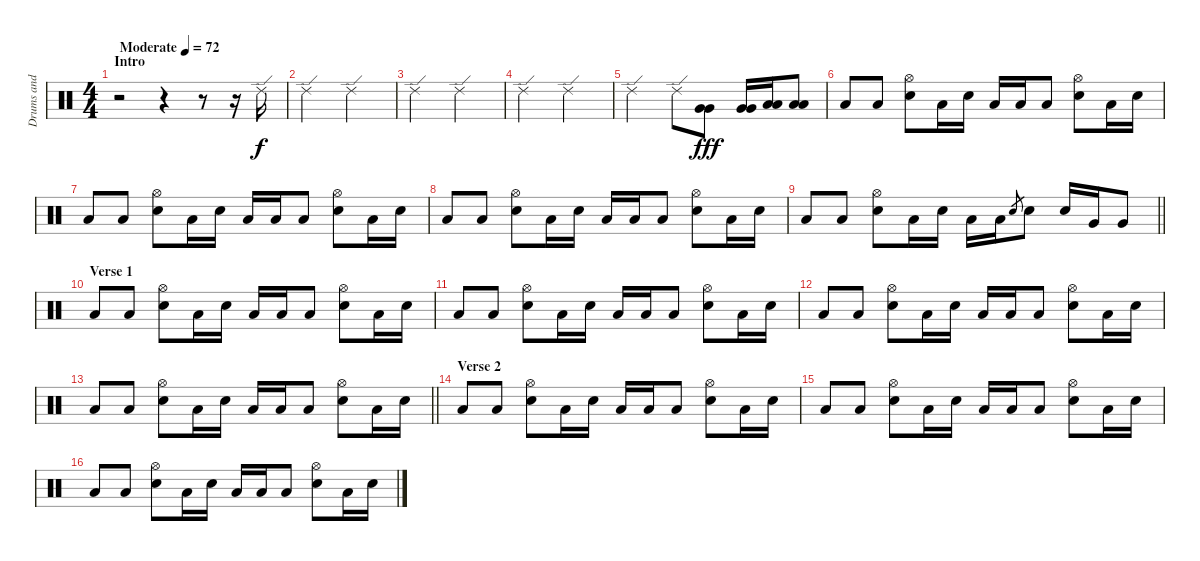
\track ("Drums and Percussions" "Drums and ") {instrument percussion}
\staff {score}
\articulation defaults
\ts (4 4)
\section ("" "Intro")
\tempo (72 "Moderate")
\clef neutral
\ks c
r.2{dy f} r.4 r.8 r.16 "Ride (edge) 2".16 |
"Ride (edge) 2".2 "Ride (edge) 2".2 |
"Ride (edge) 2".2 "Ride (edge) 2".2 |
"Ride (edge) 2".2 "Ride (edge) 2".2 |
"Ride (edge) 2".2 "Ride (edge) 2".8 ("Very Low Tom (hit)" "Very Low Tom (hit)").8{dy fff} ("Very Low Tom (hit)" "Very Low Tom (hit)").16 ("Low Floor Tom (hit)" "Low Floor Tom (hit)").16 ("Low Floor Tom (hit)" "Low Floor Tom (hit)").8 |
"Low Floor Tom (hit)".8 "Low Floor Tom (hit)".8 ("Hi-Hat (open)" "Snare (hit) 2").8 "Low Floor Tom (hit)".16 "Snare (hit) 2".16 "Low Floor Tom (hit)".16 "Low Floor Tom (hit)".16 "Low Floor Tom (hit)".8 ("Hi-Hat (open)" "Snare (hit) 2").8 "Low Floor Tom (hit)".16 "Snare (hit) 2".16 |
"Low Floor Tom (hit)".8 "Low Floor Tom (hit)".8 ("Hi-Hat (open)" "Snare (hit) 2").8 "Low Floor Tom (hit)".16 "Snare (hit) 2".16 "Low Floor Tom (hit)".16 "Low Floor Tom (hit)".16 "Low Floor Tom (hit)".8 ("Hi-Hat (open)" "Snare (hit) 2").8 "Low Floor Tom (hit)".16 "Snare (hit) 2".16 |
"Low Floor Tom (hit)".8 "Low Floor Tom (hit)".8 ("Hi-Hat (open)" "Snare (hit) 2").8 "Low Floor Tom (hit)".16 "Snare (hit) 2".16 "Low Floor Tom (hit)".16 "Low Floor Tom (hit)".16 "Low Floor Tom (hit)".8 ("Hi-Hat (open)" "Snare (hit) 2").8 "Low Floor Tom (hit)".16 "Snare (hit) 2".16 |
\barLineRight lightlight "Low Floor Tom (hit)".8 "Low Floor Tom (hit)".8
("Hi-Hat (open)" "Snare (hit) 2").8 "Low Floor Tom (hit)".16 "Snare (hit) 2".16 "Low Floor Tom (hit)".16 "Low Floor Tom (hit)".16 "Snare (hit) 2".8{gr} "Snare (hit) 2".8 "Snare (hit) 2".16 "Very Low Tom (hit)".16 "Very Low Tom (hit)".8 |
\section ("" "Verse 1")
"Low Floor Tom (hit)".8 "Low Floor Tom (hit)".8 ("Hi-Hat (open)" "Snare (hit) 2").8 "Low Floor Tom (hit)".16 "Snare (hit) 2".16 "Low Floor Tom (hit)".16 "Low Floor Tom (hit)".16 "Low Floor Tom (hit)".8 ("Hi-Hat (open)" "Snare (hit) 2").8 "Low Floor Tom (hit)".16 "Snare (hit) 2".16 |
"Low Floor Tom (hit)".8 "Low Floor Tom (hit)".8 ("Hi-Hat (open)" "Snare (hit) 2").8 "Low Floor Tom (hit)".16 "Snare (hit) 2".16 "Low Floor Tom (hit)".16 "Low Floor Tom (hit)".16 "Low Floor Tom (hit)".8 ("Hi-Hat (open)" "Snare (hit) 2").8 "Low Floor Tom (hit)".16 "Snare (hit) 2".16 |
"Low Floor Tom (hit)".8 "Low Floor Tom (hit)".8 ("Hi-Hat (open)" "Snare (hit) 2").8 "Low Floor Tom (hit)".16 "Snare (hit) 2".16 "Low Floor Tom (hit)".16 "Low Floor Tom (hit)".16 "Low Floor Tom (hit)".8 ("Hi-Hat (open)" "Snare (hit) 2").8 "Low Floor Tom (hit)".16 "Snare (hit) 2".16 |
\barLineRight lightlight "Low Floor Tom (hit)".8 "Low Floor Tom (hit)".8
("Hi-Hat (open)" "Snare (hit) 2").8 "Low Floor Tom (hit)".16 "Snare (hit) 2".16 "Low Floor Tom (hit)".16 "Low Floor Tom (hit)".16 "Low Floor Tom (hit)".8 ("Hi-Hat (open)" "Snare (hit) 2").8 "Low Floor Tom (hit)".16 "Snare (hit) 2".16 |
\section ("" "Verse 2")
"Low Floor Tom (hit)".8 "Low Floor Tom (hit)".8 ("Hi-Hat (open)" "Snare (hit) 2").8 "Low Floor Tom (hit)".16 "Snare (hit) 2".16 "Low Floor Tom (hit)".16 "Low Floor Tom (hit)".16 "Low Floor Tom (hit)".8 ("Hi-Hat (open)" "Snare (hit) 2").8 "Low Floor Tom (hit)".16 "Snare (hit) 2".16 |
"Low Floor Tom (hit)".8 "Low Floor Tom (hit)".8 ("Hi-Hat (open)" "Snare (hit) 2").8 "Low Floor Tom (hit)".16 "Snare (hit) 2".16 "Low Floor Tom (hit)".16 "Low Floor Tom (hit)".16 "Low Floor Tom (hit)".8 ("Hi-Hat (open)" "Snare (hit) 2").8 "Low Floor Tom (hit)".16 "Snare (hit) 2".16 |
"Low Floor Tom (hit)".8 "Low Floor Tom (hit)".8 ("Hi-Hat (open)" "Snare (hit) 2").8 "Low Floor Tom (hit)".16 "Snare (hit) 2".16 "Low Floor Tom (hit)".16 "Low Floor Tom (hit)".16 "Low Floor Tom (hit)".8 ("Hi-Hat (open)" "Snare (hit) 2").8 "Low Floor Tom (hit)".16 "Snare (hit) 2".16
